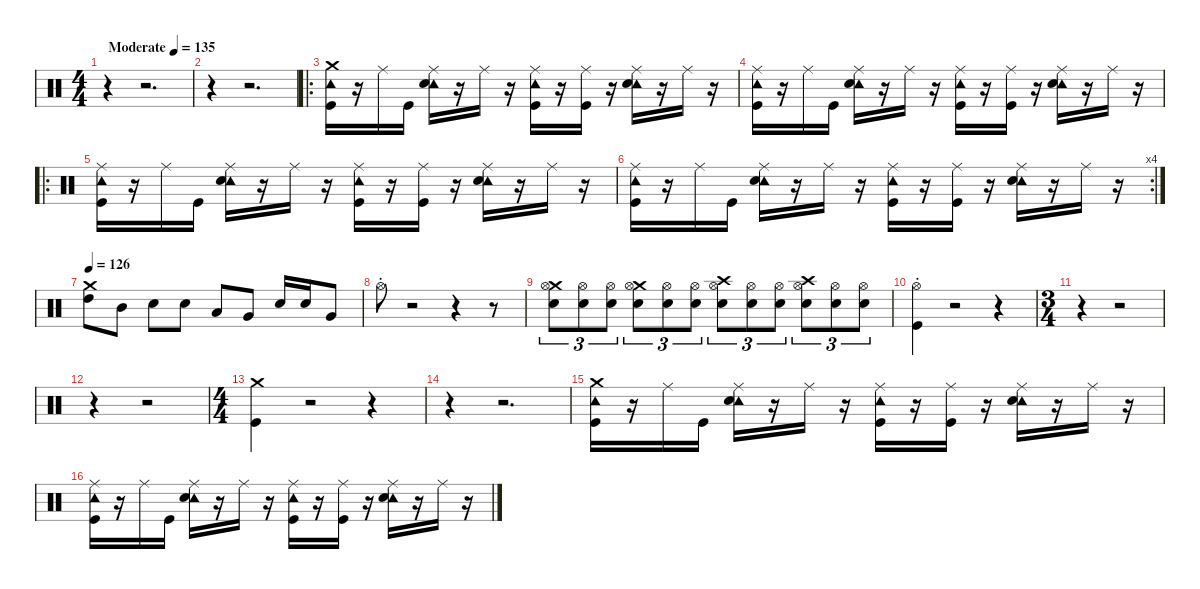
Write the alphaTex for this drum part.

\defaultSystemsLayout 4
\hideDynamics
\bracketExtendMode nobrackets
\singleTrackTrackNamePolicy hidden
\multiTrackTrackNamePolicy hidden
\firstSystemTrackNameMode fullname
\firstSystemTrackNameOrientation horizontal
\otherSystemsTrackNameOrientation horizontal
\track ("Drums" "drm.") {instrument percussion}
\staff {score}
\articulation defaults
\ts (4 4)
\beaming (8 2 2 2 2)
\tempo (135 "Moderate")
\clef neutral
\ks c
r.4{dy f beam Down} r.2{d beam Down} |
r.4{beam Down} r.2{d beam Down} |
\ro
("Tambourine (hit)" "Crash medium (hit)" "Kick (hit)").16{beam Down} r.16{beam Down} "Ride (middle)".16{beam Down} "Kick (hit)".16{beam Down} ("Tambourine (hit)" "Ride (middle)" "Snare (hit) 2").16{beam Down} r.16{beam Down} "Ride (middle)".16{beam Down} r.16{beam Down} ("Tambourine (hit)" "Ride (middle)" "Kick (hit)").16{beam Down} r.16{beam Down} ("Ride (middle)" "Kick (hit)").16{beam Down} r.16{beam Down} ("Tambourine (hit)" "Ride (middle)" "Snare (hit) 2").16{beam Down} r.16{beam Down} "Ride (middle)".16{beam Down} r.16{beam Down} |
("Tambourine (hit)" "Ride (middle)" "Kick (hit)").16{beam Down} r.16{beam Down} "Ride (middle)".16{beam Down} "Kick (hit)".16{beam Down} ("Tambourine (hit)" "Ride (middle)" "Snare (hit) 2").16{beam Down} r.16{beam Down} "Ride (middle)".16{beam Down} r.16{beam Down} ("Tambourine (hit)" "Ride (middle)" "Kick (hit)").16{beam Down} r.16{beam Down} ("Ride (middle)" "Kick (hit)").16{beam Down} r.16{beam Down} ("Tambourine (hit)" "Ride (middle)" "Snare (hit) 2").16{beam Down} r.16{beam Down} "Ride (middle)".16{beam Down} r.16{beam Down} |
\ro
("Tambourine (hit)" "Ride (middle)" "Kick (hit)").16{beam Down} r.16{beam Down} "Ride (middle)".16{beam Down} "Kick (hit)".16{beam Down} ("Tambourine (hit)" "Ride (middle)" "Snare (hit) 2").16{beam Down} r.16{beam Down} "Ride (middle)".16{beam Down} r.16{beam Down} ("Tambourine (hit)" "Ride (middle)" "Kick (hit)").16{beam Down} r.16{beam Down} ("Ride (middle)" "Kick (hit)").16{beam Down} r.16{beam Down} ("Tambourine (hit)" "Ride (middle)" "Snare (hit) 2").16{beam Down} r.16{beam Down} "Ride (middle)".16{beam Down} r.16{beam Down} |
\rc 4
("Tambourine (hit)" "Ride (middle)" "Kick (hit)").16{beam Down} r.16{beam Down} "Ride (middle)".16{beam Down} "Kick (hit)".16{beam Down} ("Tambourine (hit)" "Ride (middle)" "Snare (hit) 2").16{beam Down} r.16{beam Down} "Ride (middle)".16{beam Down} r.16{beam Down} ("Tambourine (hit)" "Ride (middle)" "Kick (hit)").16{beam Down} r.16{beam Down} ("Ride (middle)" "Kick (hit)").16{beam Down} r.16{beam Down} ("Tambourine (hit)" "Ride (middle)" "Snare (hit) 2").16{beam Down} r.16{beam Down} "Ride (middle)".16{beam Down} r.16{beam Down} |
\tempo 126
("Crash medium (hit)" "High Tom (hit)").8{beam Down} "Mid Tom (hit)".8{beam Down} "Snare (hit) 2".8{beam Down} "Snare (hit) 2".8{beam Down} "Low Tom (hit)".8{beam Up} "Very Low Tom (hit)".8{beam Up} "Snare (hit) 2".16{beam Up} "Snare (hit) 2".16{beam Up} "Very Low Tom (hit)".8{beam Up} |
"Hi-Hat (open)"{st}.8{beam Down} r.2{beam Down} r.4{beam Down} r.8{beam Down} |
("Crash medium (hit)" "Hi-Hat (open)" "Snare (hit) 2").8{tu (3 2) beam Down} ("Hi-Hat (open)" "Snare (hit) 2").8{tu (3 2) beam Down} ("Hi-Hat (open)" "Snare (hit) 2").8{tu (3 2) beam Down} ("Crash medium (hit)" "Hi-Hat (open)" "Snare (hit) 2").8{tu (3 2) beam Down} ("Hi-Hat (open)" "Snare (hit) 2").8{tu (3 2) beam Down} ("Hi-Hat (open)" "Snare (hit) 2").8{tu (3 2) beam Down} ("Crash high (hit)" "Hi-Hat (open)" "Snare (hit) 2").8{tu (3 2) beam Down} ("Hi-Hat (open)" "Snare (hit) 2").8{tu (3 2) beam Down} ("Hi-Hat (open)" "Snare (hit) 2").8{tu (3 2) beam Down} ("Crash high (hit)" "Hi-Hat (open)" "Snare (hit) 2").8{tu (3 2) beam Down} ("Hi-Hat (open)" "Snare (hit) 2").8{tu (3 2) beam Down} ("Hi-Hat (open)" "Snare (hit) 2").8{tu (3 2) beam Down} |
("Hi-Hat (open)"{st} "Kick (hit)").4{beam Down} r.2{beam Down} r.4{beam Down} |
\ts (3 4)
\beaming (8 2 2 2)
r.4{beam Down} r.2{beam Down} |
r.4{beam Down} r.2{beam Down} |
\ts (4 4)
\beaming (8 2 2 2 2)
("Crash medium (hit)" "Kick (hit)").4{beam Down} r.2{beam Down} r.4{beam Down} |
r.4{beam Down} r.2{d beam Down} |
("Tambourine (hit)" "Crash medium (hit)" "Kick (hit)").16{beam Down} r.16{beam Down} "Ride (middle)".16{beam Down} "Kick (hit)".16{beam Down} ("Tambourine (hit)" "Ride (middle)" "Snare (hit) 2").16{beam Down} r.16{beam Down} "Ride (middle)".16{beam Down} r.16{beam Down} ("Tambourine (hit)" "Ride (middle)" "Kick (hit)").16{beam Down} r.16{beam Down} ("Ride (middle)" "Kick (hit)").16{beam Down} r.16{beam Down} ("Tambourine (hit)" "Ride (middle)" "Snare (hit) 2").16{beam Down} r.16{beam Down} "Ride (middle)".16{beam Down} r.16{beam Down} |
("Tambourine (hit)" "Ride (middle)" "Kick (hit)").16{beam Down} r.16{beam Down} "Ride (middle)".16{beam Down} "Kick (hit)".16{beam Down} ("Tambourine (hit)" "Ride (middle)" "Snare (hit) 2").16{beam Down} r.16{beam Down} "Ride (middle)".16{beam Down} r.16{beam Down} ("Tambourine (hit)" "Ride (middle)" "Kick (hit)").16{beam Down} r.16{beam Down} ("Ride (middle)" "Kick (hit)").16{beam Down} r.16{beam Down} ("Tambourine (hit)" "Ride (middle)" "Snare (hit) 2").16{beam Down} r.16{beam Down} "Ride (middle)".16{beam Down} r.16{beam Down}
